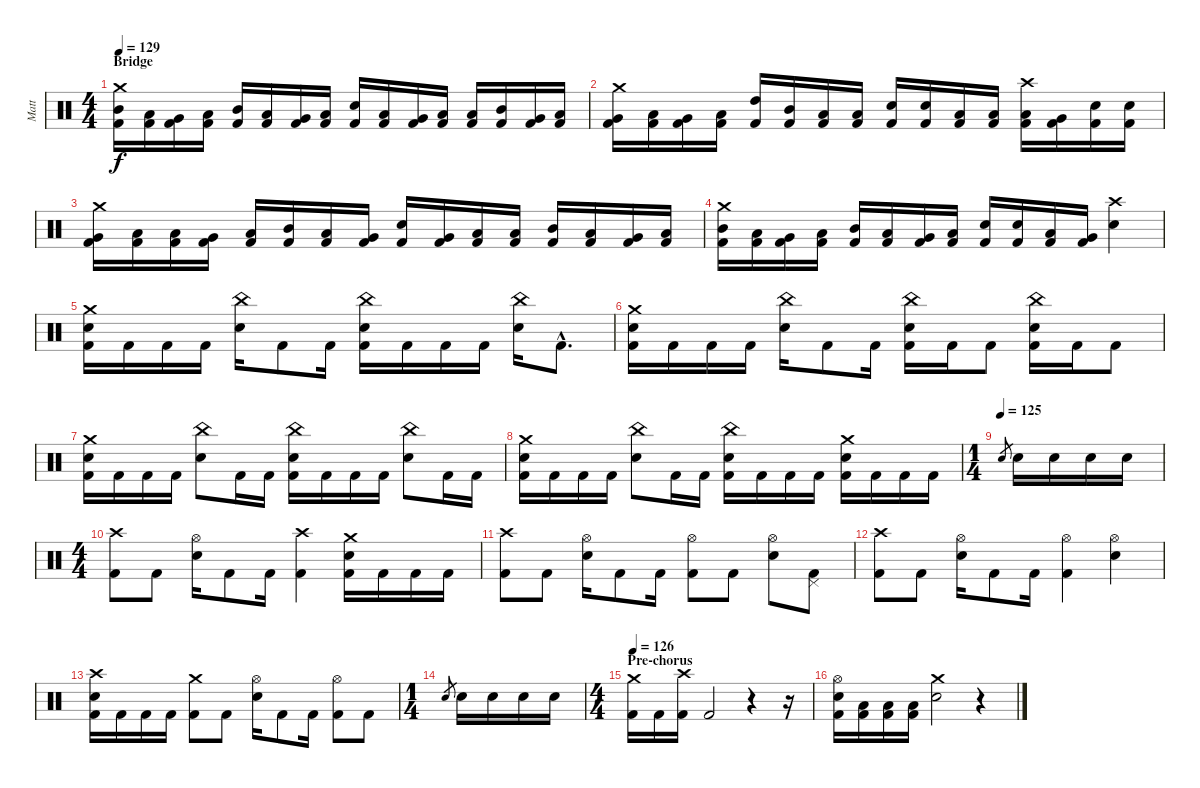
\track ("Matt" "Matt") {instrument percussion}
\staff {score}
\articulation defaults
\ts (4 4)
\section ("" "Bridge")
\tempo 129
\clef neutral
\ks c
("Crash medium (hit)" "Mid Tom (hit)" "Kick (hit) 2").16{dy f} ("Low Tom (hit)" "Kick (hit) 2").16 ("Very Low Tom (hit)" "Kick (hit) 2").16 ("Low Floor Tom (hit)" "Kick (hit) 2").16 ("Mid Tom (hit)" "Kick (hit) 2").16 ("Low Tom (hit)" "Kick (hit) 2").16 ("Very Low Tom (hit)" "Kick (hit) 2").16 ("Low Tom (hit)" "Kick (hit) 2").16 ("Electric Snare (hit)" "Kick (hit) 2").16 ("Low Tom (hit)" "Kick (hit) 2").16 ("Very Low Tom (hit)" "Kick (hit) 2").16 ("Low Floor Tom (hit)" "Kick (hit) 2").16 ("Low Tom (hit)" "Kick (hit) 2").16 ("Mid Tom (hit)" "Kick (hit) 2").16 ("Very Low Tom (hit)" "Kick (hit) 2").16 ("Low Floor Tom (hit)" "Kick (hit) 2").16 |
("Crash medium (hit)" "Very Low Tom (hit)" "Kick (hit) 2").16 ("Low Floor Tom (hit)" "Kick (hit) 2").16 ("Very Low Tom (hit)" "Kick (hit) 2").16 ("Low Tom (hit)" "Kick (hit) 2").16 ("High Tom (hit)" "Kick (hit) 2").16 ("Mid Tom (hit)" "Kick (hit) 2").16 ("Low Tom (hit)" "Kick (hit) 2").16 ("Low Floor Tom (hit)" "Kick (hit) 2").16 ("Electric Snare (hit)" "Kick (hit) 2").16 ("Electric Snare (hit)" "Kick (hit) 2").16 ("Low Floor Tom (hit)" "Kick (hit) 2").16 ("Low Floor Tom (hit)" "Kick (hit) 2").16 ("Crash high (hit)" "Low Tom (hit)" "Kick (hit) 2").16 ("Very Low Tom (hit)" "Kick (hit) 2").16 ("Electric Snare (hit)" "Kick (hit) 2").16 ("Electric Snare (hit)" "Kick (hit) 2").16 |
("Crash medium (hit)" "Very Low Tom (hit)" "Kick (hit) 2").16 ("Low Floor Tom (hit)" "Kick (hit) 2").16 ("Low Tom (hit)" "Kick (hit) 2").16 ("Very Low Tom (hit)" "Kick (hit) 2").16 ("Low Tom (hit)" "Kick (hit) 2").16 ("Mid Tom (hit)" "Kick (hit) 2").16 ("Low Tom (hit)" "Kick (hit) 2").16 ("Very Low Tom (hit)" "Kick (hit) 2").16 ("Electric Snare (hit)" "Kick (hit) 2").16 ("Very Low Tom (hit)" "Kick (hit) 2").16 ("Low Floor Tom (hit)" "Kick (hit) 2").16 ("Low Tom (hit)" "Kick (hit) 2").16 ("Mid Tom (hit)" "Kick (hit) 2").16 ("Low Tom (hit)" "Kick (hit) 2").16 ("Very Low Tom (hit)" "Kick (hit) 2").16 ("Low Floor Tom (hit)" "Kick (hit) 2").16 |
("Crash medium (hit)" "Mid Tom (hit)" "Kick (hit) 2").16 ("Low Tom (hit)" "Kick (hit) 2").16 ("Very Low Tom (hit)" "Kick (hit) 2").16 ("Low Tom (hit)" "Kick (hit) 2").16 ("Mid Tom (hit)" "Kick (hit) 2").16 ("Low Tom (hit)" "Kick (hit) 2").16 ("Very Low Tom (hit)" "Kick (hit) 2").16 ("Low Floor Tom (hit)" "Kick (hit) 2").16 ("Electric Snare (hit)" "Kick (hit) 2").16 ("Electric Snare (hit)" "Kick (hit) 2").16 ("Low Tom (hit)" "Kick (hit) 2").16 ("Very Low Tom (hit)" "Kick (hit) 2").16 ("Crash high (hit)" "Electric Snare (hit)").4 |
("Crash medium (hit)" "Electric Snare (hit)" "Kick (hit) 2").16 "Kick (hit) 2".16 "Kick (hit) 2".16 "Kick (hit) 2".16 ("China (hit)" "Electric Snare (hit)").16 "Kick (hit) 2".8 "Kick (hit) 2".16 ("China (hit)" "Electric Snare (hit)" "Kick (hit) 2").16 "Kick (hit) 2".16 "Kick (hit) 2".16 "Kick (hit) 2".16 ("China (hit)" "Electric Snare (hit)").16 "Kick (hit) 2"{hac}.8{d} |
("Crash medium (hit)" "Electric Snare (hit)" "Kick (hit) 2").16 "Kick (hit) 2".16 "Kick (hit) 2".16 "Kick (hit) 2".16 ("China (hit)" "Electric Snare (hit)").16 "Kick (hit) 2".8 "Kick (hit) 2".16 ("China (hit)" "Electric Snare (hit)" "Kick (hit) 2").16 "Kick (hit) 2".16 "Kick (hit) 2".8 ("China (hit)" "Electric Snare (hit)" "Kick (hit) 2").16 "Kick (hit) 2".16 "Kick (hit) 2".8 |
("Crash medium (hit)" "Electric Snare (hit)" "Kick (hit) 2").16 "Kick (hit) 2".16 "Kick (hit) 2".16 "Kick (hit) 2".16 ("China (hit)" "Electric Snare (hit)").8 "Kick (hit) 2".16 "Kick (hit) 2".16 ("China (hit)" "Electric Snare (hit)" "Kick (hit) 2").16 "Kick (hit) 2".16 "Kick (hit) 2".16 "Kick (hit) 2".16 ("China (hit)" "Electric Snare (hit)").8 "Kick (hit) 2".16 "Kick (hit) 2".16 |
("Crash medium (hit)" "Electric Snare (hit)" "Kick (hit) 2").16 "Kick (hit) 2".16 "Kick (hit) 2".16 "Kick (hit) 2".16 ("China (hit)" "Electric Snare (hit)").8 "Kick (hit) 2".16 "Kick (hit) 2".16 ("China (hit)" "Electric Snare (hit)" "Kick (hit) 2").16 "Kick (hit) 2".16 "Kick (hit) 2".16 "Kick (hit) 2".16 ("Crash medium (hit)" "Electric Snare (hit)" "Kick (hit) 2").16 "Kick (hit) 2".16 "Kick (hit) 2".16 "Kick (hit) 2".16 |
\ts (1 4)
\tempo (125)
"Electric Snare (hit)".8{gr} "Electric Snare (hit)".16 "Electric Snare (hit)".16 "Electric Snare (hit)".16 "Electric Snare (hit)".16 |
\ts (4 4)
("Crash high (hit)" "Kick (hit) 2").8 "Kick (hit) 2".8 ("Hi-Hat (open)" "Electric Snare (hit)").16 "Kick (hit) 2".8 "Kick (hit) 2".16 ("Crash high (hit)" "Kick (hit) 2").4 ("Crash medium (hit)" "Electric Snare (hit)" "Kick (hit) 2").16 "Kick (hit) 2".16 "Kick (hit) 2".16 "Kick (hit) 2".16 |
("Crash high (hit)" "Kick (hit) 2").8 "Kick (hit) 2".8 ("Hi-Hat (open)" "Electric Snare (hit)").16 "Kick (hit) 2".8 "Kick (hit) 2".16 ("Hi-Hat (open)" "Kick (hit) 2").8 "Kick (hit) 2".8 ("Hi-Hat (open)" "Electric Snare (hit)").8 ("Pedal Hi-Hat (hit)" "Kick (hit) 2").8 |
("Crash high (hit)" "Kick (hit) 2").8 "Kick (hit) 2".8 ("Hi-Hat (open)" "Electric Snare (hit)").16 "Kick (hit) 2".8 "Kick (hit) 2".16 ("Hi-Hat (open)" "Kick (hit) 2").4 ("Hi-Hat (open)" "Electric Snare (hit)").4 |
("Crash high (hit)" "Electric Snare (hit)" "Kick (hit) 2").16 "Kick (hit) 2".16 "Kick (hit) 2".16 "Kick (hit) 2".16 ("Crash medium (hit)" "Kick (hit) 2").8 "Kick (hit) 2".8 ("Hi-Hat (open)" "Electric Snare (hit)").16 "Kick (hit) 2".8 "Kick (hit) 2".16 ("Hi-Hat (open)" "Kick (hit) 2").8 "Kick (hit) 2".8 |
\ts (1 4)
"Electric Snare (hit)".8{gr} "Electric Snare (hit)".16 "Electric Snare (hit)".16 "Electric Snare (hit)".16 "Electric Snare (hit)".16 |
\ts (4 4)
\section ("" "Pre-chorus")
\tempo 126
("Crash medium (hit)" "Kick (hit) 2").16 "Kick (hit) 2".16 ("Crash high (hit)" "Kick (hit) 2").16 "Kick (hit) 2".2 r.4 r.16 |
("Hi-Hat (open)" "Electric Snare (hit)" "Kick (hit) 2").16 ("Low Floor Tom (hit)" "Kick (hit) 2").16 ("Low Floor Tom (hit)" "Kick (hit) 2").16 ("Low Floor Tom (hit)" "Kick (hit) 2").16 ("Crash medium (hit)" "Electric Snare (hit)").2 r.4
